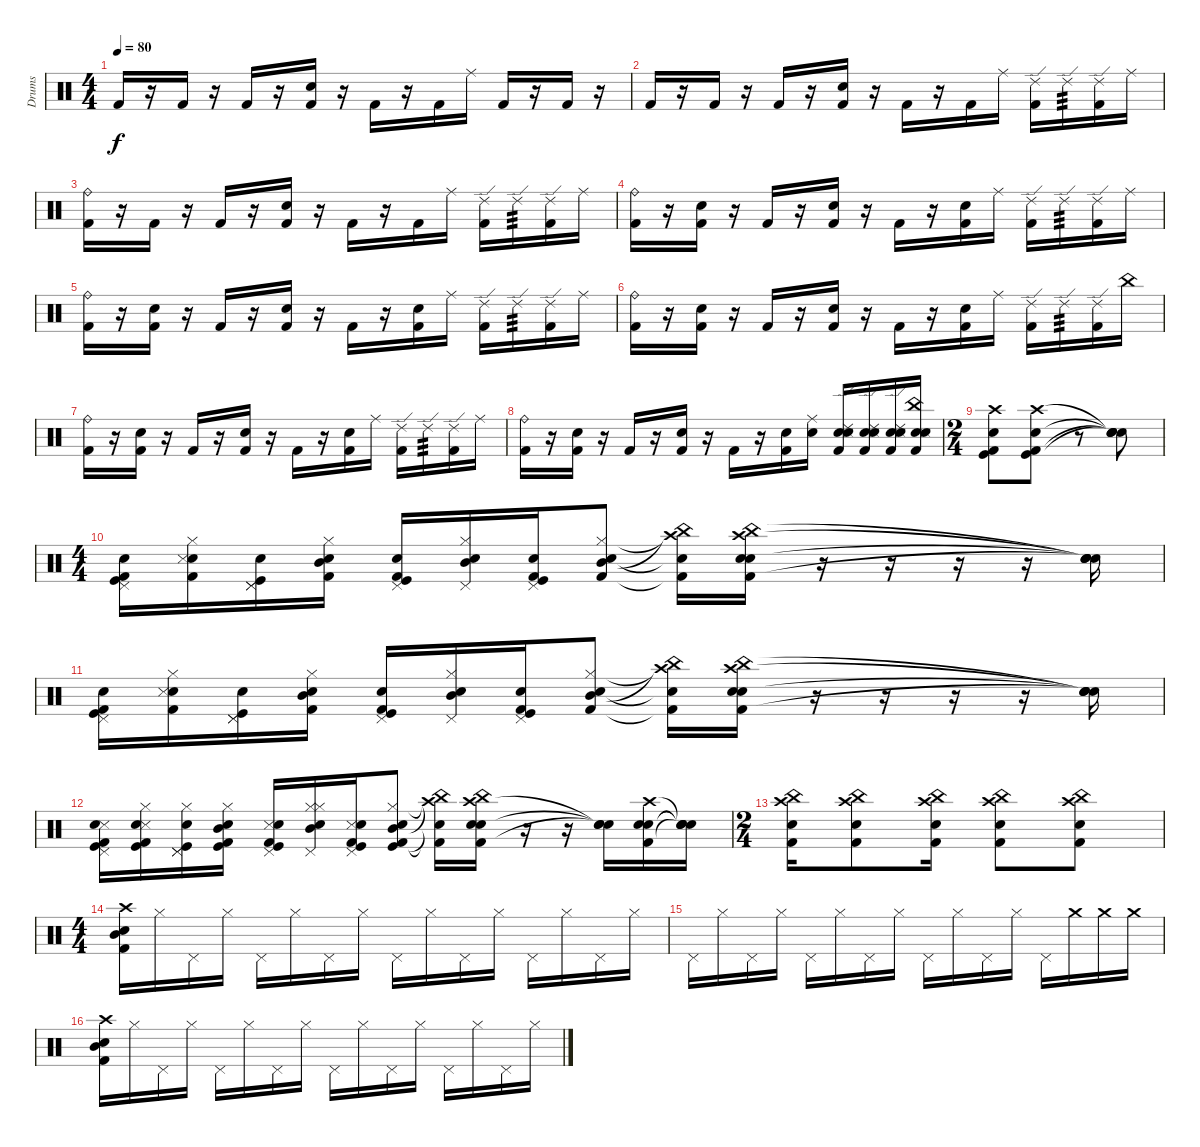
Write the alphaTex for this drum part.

\track ("Drums" "Drums") {instrument percussion}
\staff {score}
\articulation defaults
\ts (4 4)
\tempo 80
\clef neutral
\ks c "Kick (hit) 2".16{dy f}
r.16 "Kick (hit) 2".16 r.16 "Kick (hit) 2".16 r.16 ("Kick (hit) 2" "Snare (hit) 2").16 r.16 "Kick (hit) 2".16 r.16 "Kick (hit) 2".16 "Ride (middle)".16 "Kick (hit) 2".16 r.16 "Kick (hit) 2".16 r.16 |
"Kick (hit) 2".16 r.16 "Kick (hit) 2".16 r.16 "Kick (hit) 2".16 r.16 ("Kick (hit) 2" "Snare (hit) 2").16 r.16 "Kick (hit) 2".16 r.16 "Kick (hit) 2".16 "Ride (middle)".16 ("Kick (hit) 2" "Ride (edge) 2").16 "Ride (edge) 2".16{tp 3} ("Kick (hit) 2" "Ride (edge) 2").16 "Ride (middle)".16 |
("Kick (hit) 2" "Ride (bell)").16 r.16 "Kick (hit) 2".16 r.16 "Kick (hit) 2".16 r.16 ("Kick (hit) 2" "Snare (hit) 2").16 r.16 "Kick (hit) 2".16 r.16 "Kick (hit) 2".16 "Ride (middle)".16 ("Kick (hit) 2" "Ride (edge) 2").16 "Ride (edge) 2".16{tp 3} ("Kick (hit) 2" "Ride (edge) 2").16 "Ride (middle)".16 |
("Kick (hit) 2" "Ride (bell)").16 r.16 ("Kick (hit) 2" "Snare (hit) 2").16 r.16 "Kick (hit) 2".16 r.16 ("Kick (hit) 2" "Snare (hit) 2").16 r.16 "Kick (hit) 2".16 r.16 ("Kick (hit) 2" "Snare (hit) 2").16 "Ride (middle)".16 ("Kick (hit) 2" "Ride (edge) 2").16 "Ride (edge) 2".16{tp 3} ("Kick (hit) 2" "Ride (edge) 2").16 "Ride (middle)".16 |
("Kick (hit) 2" "Ride (bell)").16 r.16 ("Kick (hit) 2" "Snare (hit) 2").16 r.16 "Kick (hit) 2".16 r.16 ("Kick (hit) 2" "Snare (hit) 2").16 r.16 "Kick (hit) 2".16 r.16 ("Kick (hit) 2" "Snare (hit) 2").16 "Ride (middle)".16 ("Kick (hit) 2" "Ride (edge) 2").16 "Ride (edge) 2".16{tp 3} ("Kick (hit) 2" "Ride (edge) 2").16 "Ride (middle)".16 |
("Kick (hit) 2" "Ride (bell)").16 r.16 ("Kick (hit) 2" "Snare (hit) 2").16 r.16 "Kick (hit) 2".16 r.16 ("Kick (hit) 2" "Snare (hit) 2").16 r.16 "Kick (hit) 2".16 r.16 ("Kick (hit) 2" "Snare (hit) 2").16 "Ride (middle)".16 ("Kick (hit) 2" "Ride (edge) 2").16 "Ride (edge) 2".16{tp 3} ("Kick (hit) 2" "Ride (edge) 2").16 "China (hit)".16 |
("Kick (hit) 2" "Ride (bell)").16 r.16 ("Kick (hit) 2" "Snare (hit) 2").16 r.16 "Kick (hit) 2".16 r.16 ("Kick (hit) 2" "Snare (hit) 2").16 r.16 "Kick (hit) 2".16 r.16 ("Kick (hit) 2" "Snare (hit) 2").16 "Ride (middle)".16 ("Kick (hit) 2" "Ride (edge) 2").16 "Ride (edge) 2".16{tp 3} ("Kick (hit) 2" "Ride (edge) 2").16 "Ride (middle)".16 |
("Kick (hit) 2" "Ride (bell)").16 r.16 ("Kick (hit) 2" "Snare (hit) 2").16 r.16 "Kick (hit) 2".16 r.16 ("Kick (hit) 2" "Snare (hit) 2").16 r.16 "Kick (hit) 2".16 r.16 ("Kick (hit) 2" "Snare (hit) 2").16 ("Ride (middle)" "Electric Snare (hit)").16 ("Kick (hit) 2" "Snare (hit) 2" "Ride (edge) 2" "Snare (side stick) 3" "Electric Snare (hit)").16 ("Kick (hit) 2" "Snare (hit) 2" "Ride (edge) 2" "Snare (side stick) 3" "Electric Snare (hit)").16 ("Kick (hit) 2" "Snare (hit) 2" "Ride (edge) 2" "Snare (side stick) 3" "Electric Snare (hit)").16 ("Kick (hit) 2" "Snare (hit) 2" "China (hit)" "Snare (side stick) 3" "Electric Snare (hit)").16 |
\ts (2 4)
("Kick (hit) 2" "Snare (hit) 2" "Kick (hit)" "Crash high (hit)").8 ("Kick (hit) 2" "Snare (hit) 2" "Kick (hit)" "Crash high (hit)").8 r.8 ("Snare (hit)"{t} "Snare (hit)"{t} "Snare (hit)"{t} "Snare (hit)"{t}).8 |
\ts (4 4)
("Kick (hit) 2" "Electric Snare (hit)" "Pedal Hi-Hat (hit)" "Kick (hit)").16{volume 16} ("Kick (hit) 2" "Electric Snare (hit)" "Hi-Hat (closed)" "Snare (side stick) 3").16 ("Pedal Hi-Hat (hit)" "Electric Snare (hit)" "Pedal Hi-Hat (hit)" "Kick (hit)").16 ("Kick (hit) 2" "Electric Snare (hit)" "Hi-Hat (closed)" "Mid Tom (hit)").16 ("Kick (hit) 2" "Electric Snare (hit)" "Pedal Hi-Hat (hit)" "Kick (hit)").16 ("Pedal Hi-Hat (hit)" "Electric Snare (hit)" "Hi-Hat (closed)" "Mid Tom (hit)").16 ("Kick (hit) 2" "Electric Snare (hit)" "Pedal Hi-Hat (hit)" "Kick (hit)").16 ("Kick (hit) 2" "Electric Snare (hit)" "Hi-Hat (closed)" "Mid Tom (hit)").8 ("Kick (hit) 2"{t} "Snare (hit) 2"{t} "Crash high (hit)"{t} "China (hit)"{t}).16 ("Kick (hit) 2" "Snare (hit) 2" "Crash high (hit)" "China (hit)" "Electric Snare (hit)").16 r.16 r.16 r.16 r.16 ("Snare (hit)"{t} "Snare (hit)"{t} "Snare (hit)"{t} "Snare (hit)"{t}).16 |
("Kick (hit) 2" "Electric Snare (hit)" "Pedal Hi-Hat (hit)" "Kick (hit)").16{volume 16} ("Kick (hit) 2" "Electric Snare (hit)" "Hi-Hat (closed)" "Snare (side stick) 3").16 ("Pedal Hi-Hat (hit)" "Electric Snare (hit)" "Pedal Hi-Hat (hit)" "Kick (hit)").16 ("Kick (hit) 2" "Electric Snare (hit)" "Hi-Hat (closed)" "Mid Tom (hit)").16 ("Kick (hit) 2" "Electric Snare (hit)" "Pedal Hi-Hat (hit)" "Kick (hit)").16 ("Pedal Hi-Hat (hit)" "Electric Snare (hit)" "Hi-Hat (closed)" "Mid Tom (hit)").16 ("Kick (hit) 2" "Electric Snare (hit)" "Pedal Hi-Hat (hit)" "Kick (hit)").16 ("Kick (hit) 2" "Electric Snare (hit)" "Hi-Hat (closed)" "Mid Tom (hit)").8 ("Kick (hit) 2"{t} "Snare (hit) 2"{t} "Crash high (hit)"{t} "China (hit)"{t}).16 ("Kick (hit) 2" "Snare (hit) 2" "Crash high (hit)" "China (hit)" "Electric Snare (hit)").16 r.16 r.16 r.16 r.16 ("Snare (hit)"{t} "Snare (hit)"{t} "Snare (hit)"{t} "Snare (hit)"{t}).16 |
("Kick (hit) 2" "Snare (side stick) 3" "Pedal Hi-Hat (hit)" "Kick (hit)" "Electric Snare (hit)").16{volume 16} ("Kick (hit) 2" "Kick (hit)" "Hi-Hat (closed)" "Snare (side stick) 3" "Electric Snare (hit)").16 ("Pedal Hi-Hat (hit)" "Hi-Hat (closed)" "Pedal Hi-Hat (hit)" "Kick (hit)" "Electric Snare (hit)").16 ("Kick (hit) 2" "Kick (hit)" "Hi-Hat (closed)" "Mid Tom (hit)" "Electric Snare (hit)").16 ("Kick (hit) 2" "Snare (side stick) 3" "Pedal Hi-Hat (hit)" "Kick (hit)" "Electric Snare (hit)").16 ("Pedal Hi-Hat (hit)" "Hi-Hat (closed)" "Hi-Hat (closed)" "Mid Tom (hit)" "Electric Snare (hit)").16 ("Kick (hit) 2" "Snare (side stick) 3" "Pedal Hi-Hat (hit)" "Kick (hit)" "Electric Snare (hit)").16 ("Kick (hit) 2" "Kick (hit)" "Hi-Hat (closed)" "Mid Tom (hit)" "Electric Snare (hit)").8 ("Kick (hit) 2"{t} "Snare (hit) 2"{t} "Crash high (hit)"{t} "China (hit)"{t}).16 ("Kick (hit) 2" "Snare (hit) 2" "Crash high (hit)" "China (hit)" "Electric Snare (hit)").16 r.16 r.16 ("Snare (hit)"{t} "Snare (hit)"{t} "Snare (hit)"{t}).16 ("Kick (hit) 2" "Crash high (hit)" "Snare (hit) 2" "Electric Snare (hit)").16 ("Snare (hit)"{t} "Snare (hit)"{t} "Snare (hit)"{t} "Snare (hit)"{t}).16 |
\ts (2 4)
("Snare (hit) 2" "Kick (hit) 2" "Crash high (hit)" "China (hit)").16 ("Snare (hit) 2" "Kick (hit) 2" "Crash high (hit)" "China (hit)").8 ("Snare (hit) 2" "Kick (hit) 2" "Crash high (hit)" "China (hit)").16 ("Snare (hit) 2" "Kick (hit) 2" "Crash high (hit)" "China (hit)").8 ("Snare (hit) 2" "Kick (hit) 2" "Crash high (hit)" "China (hit)").8 |
\ts (4 4)
("Snare (hit) 2" "Kick (hit) 2" "Crash high (hit)" "Mid Tom (hit)").16 "Hi-Hat (closed)".16 "Pedal Hi-Hat (hit)".16 "Hi-Hat (closed)".16 "Pedal Hi-Hat (hit)".16 "Hi-Hat (closed)".16 "Pedal Hi-Hat (hit)".16 "Hi-Hat (closed)".16 "Pedal Hi-Hat (hit)".16 "Hi-Hat (closed)".16 "Pedal Hi-Hat (hit)".16 "Hi-Hat (closed)".16 "Pedal Hi-Hat (hit)".16 "Hi-Hat (closed)".16 "Pedal Hi-Hat (hit)".16 "Hi-Hat (closed)".16 |
"Pedal Hi-Hat (hit)".16 "Hi-Hat (closed)".16 "Pedal Hi-Hat (hit)".16 "Hi-Hat (closed)".16 "Pedal Hi-Hat (hit)".16 "Hi-Hat (closed)".16 "Pedal Hi-Hat (hit)".16 "Hi-Hat (closed)".16 "Pedal Hi-Hat (hit)".16 "Hi-Hat (closed)".16 "Pedal Hi-Hat (hit)".16 "Hi-Hat (closed)".16 "Pedal Hi-Hat (hit)".16 "Crash medium (hit)".16 "Crash medium (hit)".16 "Crash medium (hit)".16 |
("Snare (hit) 2" "Kick (hit) 2" "Crash high (hit)" "Mid Tom (hit)").16 "Hi-Hat (closed)".16 "Pedal Hi-Hat (hit)".16 "Hi-Hat (closed)".16 "Pedal Hi-Hat (hit)".16 "Hi-Hat (closed)".16 "Pedal Hi-Hat (hit)".16 "Hi-Hat (closed)".16 "Pedal Hi-Hat (hit)".16 "Hi-Hat (closed)".16 "Pedal Hi-Hat (hit)".16 "Hi-Hat (closed)".16 "Pedal Hi-Hat (hit)".16 "Hi-Hat (closed)".16 "Pedal Hi-Hat (hit)".16 "Hi-Hat (closed)".16
